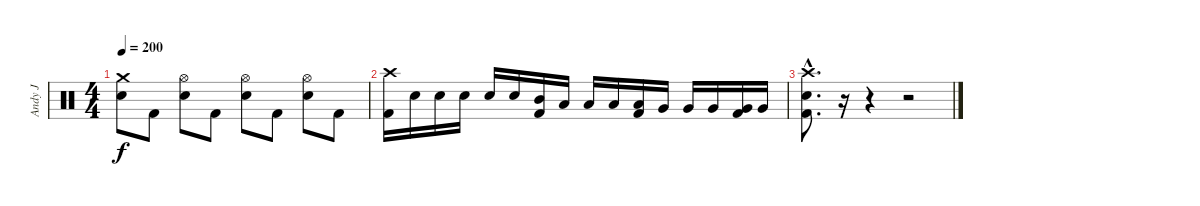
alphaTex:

\track ("Andy J" "Andy J") {instrument percussion}
\staff {score}
\articulation defaults
\ts (4 4)
\tempo 200
\clef neutral
\ks c
("Crash medium (hit)" "Electric Snare (hit)").8{dy f} "Kick (hit) 2".8 ("Hi-Hat (open)" "Electric Snare (hit)").8 "Kick (hit) 2".8 ("Hi-Hat (open)" "Electric Snare (hit)").8 "Kick (hit) 2".8 ("Hi-Hat (open)" "Electric Snare (hit)").8 "Kick (hit) 2".8 |
("Crash high (hit)" "Kick (hit) 2").16 "Electric Snare (hit)".16 "Electric Snare (hit)".16 "Electric Snare (hit)".16 "Electric Snare (hit)".16 "Electric Snare (hit)".16 ("Mid Tom (hit)" "Kick (hit) 2").16 "Low Tom (hit)".16 "Low Tom (hit)".16 "Low Tom (hit)".16 ("Low Tom (hit)" "Kick (hit) 2").16 "Very Low Tom (hit)".16 "Very Low Tom (hit)".16 "Very Low Tom (hit)".16 ("Very Low Tom (hit)" "Kick (hit) 2").16 "Very Low Tom (hit)".16 |
("Crash high (hit)"{hac} "Electric Snare (hit)"{hac} "Kick (hit) 2"{hac}).8{d} r.16{volume 0} r.4 r.2
